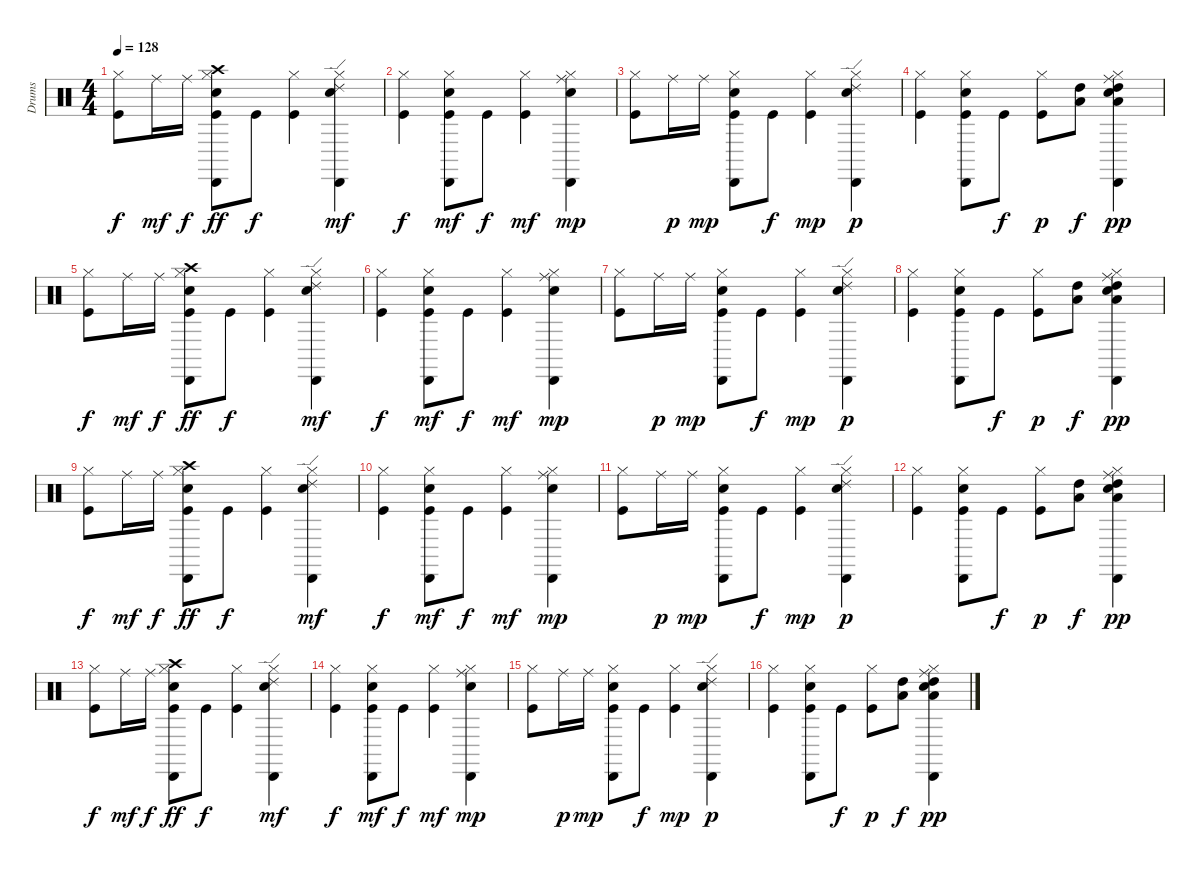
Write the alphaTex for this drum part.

\track ("Drums               " "Drums     ") {instrument percussion}
\staff {score}
\articulation defaults
\ts (4 4)
\tempo 128
\clef neutral
\ks c
("Hi-Hat (closed)" "Kick (hit)").8{dy f} "Ride (middle)".16{dy mf} "Ride (middle)".16{dy f} ("Crash high (hit)" "Hi-Hat (closed)" "Cabasa (hit)" "Snare (hit) 2" "Kick (hit)").8{dy ff} "Kick (hit)".8{dy f} ("Hi-Hat (closed)" "Kick (hit)").4 ("Cabasa (hit)" "Hi-Hat (closed)" "Ride (edge) 2" "Snare (hit) 2").4{dy mf} |
("Hi-Hat (closed)" "Kick (hit)").4{dy f} ("Hi-Hat (closed)" "Cabasa (hit)" "Snare (hit) 2" "Kick (hit)").8{dy mf} "Kick (hit)".8{dy f} ("Hi-Hat (closed)" "Kick (hit)").4{dy mf} ("Ride (middle)" "Cabasa (hit)" "Hi-Hat (closed)" "Snare (hit) 2").4{dy mp} |
("Hi-Hat (closed)" "Kick (hit)").8 "Ride (middle)".16{dy p} "Ride (middle)".16{dy mp} ("Hi-Hat (closed)" "Cabasa (hit)" "Snare (hit) 2" "Kick (hit)").8 "Kick (hit)".8{dy f} ("Hi-Hat (closed)" "Kick (hit)").4{dy mp} ("Hi-Hat (closed)" "Ride (edge) 2" "Cabasa (hit)" "Snare (hit) 2").4{dy p} |
("Hi-Hat (closed)" "Kick (hit)").4 ("Hi-Hat (closed)" "Cabasa (hit)" "Snare (hit) 2" "Kick (hit)").8 "Kick (hit)".8{dy f} ("Hi-Hat (closed)" "Kick (hit)").8{dy p} ("Low Tom (hit)" "High Tom (hit)").8{dy f} ("Ride (middle)" "Cabasa (hit)" "Low Tom (hit)" "Hi-Hat (closed)" "High Tom (hit)" "Snare (hit) 2").4{dy pp} |
("Hi-Hat (closed)" "Kick (hit)").8{dy f} "Ride (middle)".16{dy mf} "Ride (middle)".16{dy f} ("Crash high (hit)" "Hi-Hat (closed)" "Cabasa (hit)" "Snare (hit) 2" "Kick (hit)").8{dy ff} "Kick (hit)".8{dy f} ("Hi-Hat (closed)" "Kick (hit)").4 ("Cabasa (hit)" "Hi-Hat (closed)" "Ride (edge) 2" "Snare (hit) 2").4{dy mf} |
("Hi-Hat (closed)" "Kick (hit)").4{dy f} ("Hi-Hat (closed)" "Cabasa (hit)" "Snare (hit) 2" "Kick (hit)").8{dy mf} "Kick (hit)".8{dy f} ("Hi-Hat (closed)" "Kick (hit)").4{dy mf} ("Ride (middle)" "Cabasa (hit)" "Hi-Hat (closed)" "Snare (hit) 2").4{dy mp} |
("Hi-Hat (closed)" "Kick (hit)").8 "Ride (middle)".16{dy p} "Ride (middle)".16{dy mp} ("Hi-Hat (closed)" "Cabasa (hit)" "Snare (hit) 2" "Kick (hit)").8 "Kick (hit)".8{dy f} ("Hi-Hat (closed)" "Kick (hit)").4{dy mp} ("Hi-Hat (closed)" "Ride (edge) 2" "Cabasa (hit)" "Snare (hit) 2").4{dy p} |
("Hi-Hat (closed)" "Kick (hit)").4 ("Hi-Hat (closed)" "Cabasa (hit)" "Snare (hit) 2" "Kick (hit)").8 "Kick (hit)".8{dy f} ("Hi-Hat (closed)" "Kick (hit)").8{dy p} ("Low Tom (hit)" "High Tom (hit)").8{dy f} ("Ride (middle)" "Cabasa (hit)" "Low Tom (hit)" "Hi-Hat (closed)" "High Tom (hit)" "Snare (hit) 2").4{dy pp} |
("Hi-Hat (closed)" "Kick (hit)").8{dy f} "Ride (middle)".16{dy mf} "Ride (middle)".16{dy f} ("Crash high (hit)" "Hi-Hat (closed)" "Cabasa (hit)" "Snare (hit) 2" "Kick (hit)").8{dy ff} "Kick (hit)".8{dy f} ("Hi-Hat (closed)" "Kick (hit)").4 ("Cabasa (hit)" "Hi-Hat (closed)" "Ride (edge) 2" "Snare (hit) 2").4{dy mf} |
("Hi-Hat (closed)" "Kick (hit)").4{dy f} ("Hi-Hat (closed)" "Cabasa (hit)" "Snare (hit) 2" "Kick (hit)").8{dy mf} "Kick (hit)".8{dy f} ("Hi-Hat (closed)" "Kick (hit)").4{dy mf} ("Ride (middle)" "Cabasa (hit)" "Hi-Hat (closed)" "Snare (hit) 2").4{dy mp} |
("Hi-Hat (closed)" "Kick (hit)").8 "Ride (middle)".16{dy p} "Ride (middle)".16{dy mp} ("Hi-Hat (closed)" "Cabasa (hit)" "Snare (hit) 2" "Kick (hit)").8 "Kick (hit)".8{dy f} ("Hi-Hat (closed)" "Kick (hit)").4{dy mp} ("Hi-Hat (closed)" "Ride (edge) 2" "Cabasa (hit)" "Snare (hit) 2").4{dy p} |
("Hi-Hat (closed)" "Kick (hit)").4 ("Hi-Hat (closed)" "Cabasa (hit)" "Snare (hit) 2" "Kick (hit)").8 "Kick (hit)".8{dy f} ("Hi-Hat (closed)" "Kick (hit)").8{dy p} ("Low Tom (hit)" "High Tom (hit)").8{dy f} ("Ride (middle)" "Cabasa (hit)" "Low Tom (hit)" "Hi-Hat (closed)" "High Tom (hit)" "Snare (hit) 2").4{dy pp} |
("Hi-Hat (closed)" "Kick (hit)").8{dy f} "Ride (middle)".16{dy mf} "Ride (middle)".16{dy f} ("Crash high (hit)" "Hi-Hat (closed)" "Cabasa (hit)" "Snare (hit) 2" "Kick (hit)").8{dy ff} "Kick (hit)".8{dy f} ("Hi-Hat (closed)" "Kick (hit)").4 ("Cabasa (hit)" "Hi-Hat (closed)" "Ride (edge) 2" "Snare (hit) 2").4{dy mf} |
("Hi-Hat (closed)" "Kick (hit)").4{dy f} ("Hi-Hat (closed)" "Cabasa (hit)" "Snare (hit) 2" "Kick (hit)").8{dy mf} "Kick (hit)".8{dy f} ("Hi-Hat (closed)" "Kick (hit)").4{dy mf} ("Ride (middle)" "Cabasa (hit)" "Hi-Hat (closed)" "Snare (hit) 2").4{dy mp} |
("Hi-Hat (closed)" "Kick (hit)").8{volume 9} "Ride (middle)".16{dy p} "Ride (middle)".16{dy mp} ("Hi-Hat (closed)" "Cabasa (hit)" "Snare (hit) 2" "Kick (hit)").8 "Kick (hit)".8{dy f} ("Hi-Hat (closed)" "Kick (hit)").4{dy mp} ("Hi-Hat (closed)" "Ride (edge) 2" "Cabasa (hit)" "Snare (hit) 2").4{dy p} |
("Hi-Hat (closed)" "Kick (hit)").4{volume 5} ("Hi-Hat (closed)" "Cabasa (hit)" "Snare (hit) 2" "Kick (hit)").8 "Kick (hit)".8{dy f} ("Hi-Hat (closed)" "Kick (hit)").8{dy p} ("Low Tom (hit)" "High Tom (hit)").8{dy f} ("Ride (middle)" "Cabasa (hit)" "Low Tom (hit)" "Hi-Hat (closed)" "High Tom (hit)" "Snare (hit) 2").4{dy pp}
